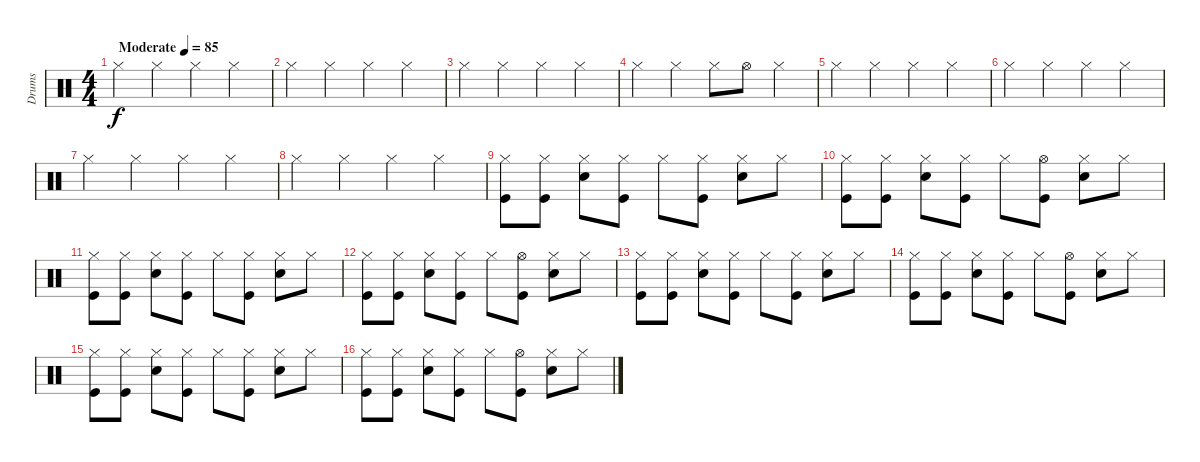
\track ("Drums" "Drums") {instrument percussion}
\staff {score}
\articulation defaults
\ts (4 4)
\tempo (85 "Moderate")
\clef neutral
\ks c "Hi-Hat (closed)".4{dy f} "Hi-Hat (closed)".4 "Hi-Hat (closed)".4 "Hi-Hat (closed)".4
|
"Hi-Hat (closed)".4 "Hi-Hat (closed)".4 "Hi-Hat (closed)".4 "Hi-Hat (closed)".4 |
"Hi-Hat (closed)".4 "Hi-Hat (closed)".4 "Hi-Hat (closed)".4 "Hi-Hat (closed)".4 |
"Hi-Hat (closed)".4 "Hi-Hat (closed)".4 "Hi-Hat (closed)".8 "Hi-Hat (open)".8 "Hi-Hat (closed)".4 |
"Hi-Hat (closed)".4 "Hi-Hat (closed)".4 "Hi-Hat (closed)".4 "Hi-Hat (closed)".4 |
"Hi-Hat (closed)".4 "Hi-Hat (closed)".4 "Hi-Hat (closed)".4 "Hi-Hat (closed)".4 |
"Hi-Hat (closed)".4 "Hi-Hat (closed)".4 "Hi-Hat (closed)".4 "Hi-Hat (closed)".4 |
"Hi-Hat (closed)".4 "Hi-Hat (closed)".4 "Hi-Hat (closed)".4 "Hi-Hat (closed)".4 |
("Kick (hit)" "Hi-Hat (closed)").8 ("Hi-Hat (closed)" "Kick (hit)").8 ("Snare (hit) 2" "Hi-Hat (closed)").8 ("Kick (hit)" "Hi-Hat (closed)").8 "Hi-Hat (closed)".8 ("Hi-Hat (closed)" "Kick (hit)").8 ("Hi-Hat (closed)" "Snare (hit) 2").8 "Hi-Hat (closed)".8 |
("Kick (hit)" "Hi-Hat (closed)").8 ("Hi-Hat (closed)" "Kick (hit)").8 ("Snare (hit) 2" "Hi-Hat (closed)").8 ("Kick (hit)" "Hi-Hat (closed)").8 "Hi-Hat (closed)".8 ("Hi-Hat (open)" "Kick (hit)").8 ("Hi-Hat (closed)" "Snare (hit) 2").8 "Hi-Hat (closed)".8 |
("Kick (hit)" "Hi-Hat (closed)").8 ("Hi-Hat (closed)" "Kick (hit)").8 ("Snare (hit) 2" "Hi-Hat (closed)").8 ("Kick (hit)" "Hi-Hat (closed)").8 "Hi-Hat (closed)".8 ("Hi-Hat (closed)" "Kick (hit)").8 ("Hi-Hat (closed)" "Snare (hit) 2").8 "Hi-Hat (closed)".8 |
("Kick (hit)" "Hi-Hat (closed)").8 ("Hi-Hat (closed)" "Kick (hit)").8 ("Snare (hit) 2" "Hi-Hat (closed)").8 ("Kick (hit)" "Hi-Hat (closed)").8 "Hi-Hat (closed)".8 ("Hi-Hat (open)" "Kick (hit)").8 ("Hi-Hat (closed)" "Snare (hit) 2").8 "Hi-Hat (closed)".8 |
("Kick (hit)" "Hi-Hat (closed)").8 ("Hi-Hat (closed)" "Kick (hit)").8 ("Snare (hit) 2" "Hi-Hat (closed)").8 ("Kick (hit)" "Hi-Hat (closed)").8 "Hi-Hat (closed)".8 ("Hi-Hat (closed)" "Kick (hit)").8 ("Hi-Hat (closed)" "Snare (hit) 2").8 "Hi-Hat (closed)".8 |
("Kick (hit)" "Hi-Hat (closed)").8 ("Hi-Hat (closed)" "Kick (hit)").8 ("Snare (hit) 2" "Hi-Hat (closed)").8 ("Kick (hit)" "Hi-Hat (closed)").8 "Hi-Hat (closed)".8 ("Hi-Hat (open)" "Kick (hit)").8 ("Hi-Hat (closed)" "Snare (hit) 2").8 "Hi-Hat (closed)".8 |
("Kick (hit)" "Hi-Hat (closed)").8 ("Hi-Hat (closed)" "Kick (hit)").8 ("Snare (hit) 2" "Hi-Hat (closed)").8 ("Kick (hit)" "Hi-Hat (closed)").8 "Hi-Hat (closed)".8 ("Hi-Hat (closed)" "Kick (hit)").8 ("Hi-Hat (closed)" "Snare (hit) 2").8 "Hi-Hat (closed)".8 |
("Kick (hit)" "Hi-Hat (closed)").8 ("Hi-Hat (closed)" "Kick (hit)").8 ("Snare (hit) 2" "Hi-Hat (closed)").8 ("Kick (hit)" "Hi-Hat (closed)").8 "Hi-Hat (closed)".8 ("Hi-Hat (open)" "Kick (hit)").8 ("Hi-Hat (closed)" "Snare (hit) 2").8 "Hi-Hat (closed)".8
